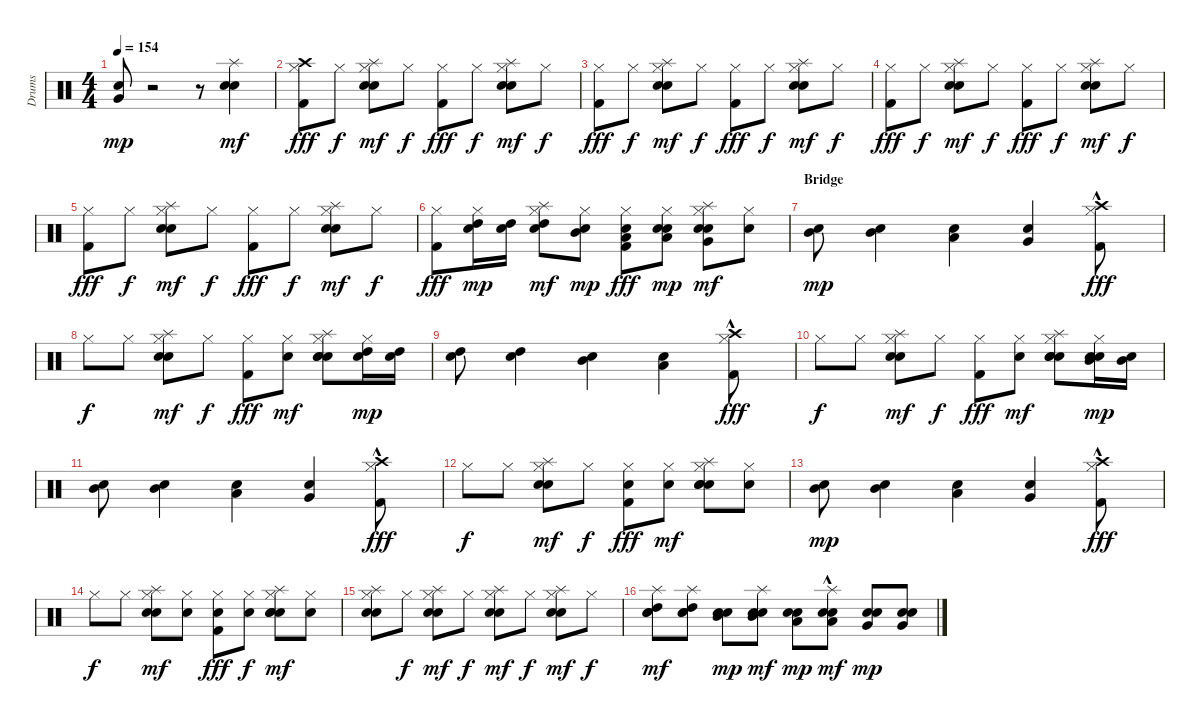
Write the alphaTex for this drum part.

\track ("Drums" "Drums") {instrument percussion}
\staff {score}
\articulation defaults
\ts (4 4)
\tempo 154
\clef neutral
\ks c
("Very Low Tom (hit)" "Snare (hit) 2").8{dy mp} r.2 r.8 ("Splash (hit)" "Electric Snare (hit)" "Snare (hit) 2").4{dy mf} |
("Crash high (hit)" "Hi-Hat (closed)" "Kick (hit) 2").8{dy fff} "Hi-Hat (closed)".8{dy f} ("Splash (hit)" "Hi-Hat (closed)" "Electric Snare (hit)" "Snare (hit) 2").8{dy mf} "Hi-Hat (closed)".8{dy f} ("Hi-Hat (closed)" "Kick (hit) 2").8{dy fff} "Hi-Hat (closed)".8{dy f} ("Splash (hit)" "Hi-Hat (closed)" "Electric Snare (hit)" "Snare (hit) 2").8{dy mf} "Hi-Hat (closed)".8{dy f} |
("Hi-Hat (closed)" "Kick (hit) 2").8{dy fff} "Hi-Hat (closed)".8{dy f} ("Splash (hit)" "Hi-Hat (closed)" "Electric Snare (hit)" "Snare (hit) 2").8{dy mf} "Hi-Hat (closed)".8{dy f} ("Hi-Hat (closed)" "Kick (hit) 2").8{dy fff} "Hi-Hat (closed)".8{dy f} ("Splash (hit)" "Hi-Hat (closed)" "Electric Snare (hit)" "Snare (hit) 2").8{dy mf} "Hi-Hat (closed)".8{dy f} |
("Hi-Hat (closed)" "Kick (hit) 2").8{dy fff} "Hi-Hat (closed)".8{dy f} ("Splash (hit)" "Hi-Hat (closed)" "Electric Snare (hit)" "Snare (hit) 2").8{dy mf} "Hi-Hat (closed)".8{dy f} ("Hi-Hat (closed)" "Kick (hit) 2").8{dy fff} "Hi-Hat (closed)".8{dy f} ("Splash (hit)" "Hi-Hat (closed)" "Electric Snare (hit)" "Snare (hit) 2").8{dy mf} "Hi-Hat (closed)".8{dy f} |
("Hi-Hat (closed)" "Kick (hit) 2").8{dy fff} "Hi-Hat (closed)".8{dy f} ("Splash (hit)" "Hi-Hat (closed)" "Electric Snare (hit)" "Snare (hit) 2").8{dy mf} "Hi-Hat (closed)".8{dy f} ("Hi-Hat (closed)" "Kick (hit) 2").8{dy fff} "Hi-Hat (closed)".8{dy f} ("Splash (hit)" "Hi-Hat (closed)" "Electric Snare (hit)" "Snare (hit) 2").8{dy mf} "Hi-Hat (closed)".8{dy f} |
("Hi-Hat (closed)" "Kick (hit) 2").8{dy fff} ("Hi-Hat (closed)" "High Tom (hit)" "Snare (hit) 2").16{dy mp} ("High Tom (hit)" "Snare (hit) 2").16 ("Splash (hit)" "Hi-Hat (closed)" "High Tom (hit)" "Snare (hit) 2").8{dy mf} ("Hi-Hat (closed)" "Mid Tom (hit)" "Snare (hit) 2").8{dy mp} ("Hi-Hat (closed)" "Low Tom (hit)" "Snare (hit) 2" "Kick (hit) 2").8{dy fff} ("Hi-Hat (closed)" "Hand Clap (hit)" "Low Tom (hit)" "Snare (hit) 2").8{dy mp} ("Splash (hit)" "Hi-Hat (closed)" "Hand Clap (hit)" "Very Low Tom (hit)" "Snare (hit) 2").8{dy mf} ("Hi-Hat (closed)" "Hand Clap (hit)").8 |
\section ("" "Bridge")
("Mid Tom (hit)" "Snare (hit) 2").8{dy mp} ("Mid Tom (hit)" "Snare (hit) 2").4 ("Low Tom (hit)" "Snare (hit) 2").4 ("Very Low Tom (hit)" "Snare (hit) 2").4 ("Crash high (hit)" "Hi-Hat (closed)" "Kick (hit) 2"{hac}).8{dy fff} |
"Hi-Hat (closed)".8{dy f} "Hi-Hat (closed)".8 ("Splash (hit)" "Hi-Hat (closed)" "Electric Snare (hit)" "Snare (hit) 2").8{dy mf} "Hi-Hat (closed)".8{dy f} ("Hi-Hat (closed)" "Kick (hit) 2").8{dy fff} ("Hi-Hat (closed)" "Hand Clap (hit)").8{dy mf} ("Splash (hit)" "Hi-Hat (closed)" "Hand Clap (hit)" "Electric Snare (hit)" "Snare (hit) 2").8 ("Hi-Hat (closed)" "High Tom (hit)" "Snare (hit) 2").16{dy mp} ("High Tom (hit)" "Snare (hit) 2").16 |
("High Tom (hit)" "Snare (hit) 2").8 ("High Tom (hit)" "Snare (hit) 2").4 ("Mid Tom (hit)" "Snare (hit) 2").4 ("Low Tom (hit)" "Snare (hit) 2").4 ("Crash high (hit)" "Hi-Hat (closed)" "Kick (hit) 2"{hac}).8{dy fff} |
"Hi-Hat (closed)".8{dy f} "Hi-Hat (closed)".8 ("Splash (hit)" "Hi-Hat (closed)" "Electric Snare (hit)" "Snare (hit) 2").8{dy mf} "Hi-Hat (closed)".8{dy f} ("Hi-Hat (closed)" "Kick (hit) 2").8{dy fff} ("Hi-Hat (closed)" "Hand Clap (hit)").8{dy mf} ("Splash (hit)" "Hi-Hat (closed)" "Hand Clap (hit)" "Electric Snare (hit)" "Snare (hit) 2").8 ("Hi-Hat (closed)" "Hand Clap (hit)" "Mid Tom (hit)" "Snare (hit) 2").16{dy mp} ("Mid Tom (hit)" "Snare (hit) 2").16 |
("Mid Tom (hit)" "Snare (hit) 2").8 ("Mid Tom (hit)" "Snare (hit) 2").4 ("Low Tom (hit)" "Snare (hit) 2").4 ("Very Low Tom (hit)" "Snare (hit) 2").4 ("Crash high (hit)" "Hi-Hat (closed)" "Kick (hit) 2"{hac}).8{dy fff} |
"Hi-Hat (closed)".8{dy f} "Hi-Hat (closed)".8 ("Splash (hit)" "Hi-Hat (closed)" "Electric Snare (hit)" "Snare (hit) 2").8{dy mf} "Hi-Hat (closed)".8{dy f} ("Hi-Hat (closed)" "Hand Clap (hit)" "Kick (hit) 2").8{dy fff} ("Hi-Hat (closed)" "Hand Clap (hit)").8{dy mf} ("Splash (hit)" "Hi-Hat (closed)" "Hand Clap (hit)" "Electric Snare (hit)" "Snare (hit) 2").8 ("Hi-Hat (closed)" "Hand Clap (hit)").8 |
("Mid Tom (hit)" "Snare (hit) 2").8{dy mp} ("Mid Tom (hit)" "Snare (hit) 2").4 ("Low Tom (hit)" "Snare (hit) 2").4 ("Very Low Tom (hit)" "Snare (hit) 2").4 ("Crash high (hit)" "Hi-Hat (closed)" "Kick (hit) 2"{hac}).8{dy fff} |
"Hi-Hat (closed)".8{dy f} "Hi-Hat (closed)".8 ("Splash (hit)" "Hi-Hat (closed)" "Electric Snare (hit)" "Snare (hit) 2").8{dy mf} ("Hi-Hat (closed)" "Hand Clap (hit)").8 ("Hi-Hat (closed)" "Hand Clap (hit)" "Kick (hit) 2").8{dy fff} ("Hand Clap (hit)" "Hi-Hat (closed)").8{dy f} ("Splash (hit)" "Hi-Hat (closed)" "Hand Clap (hit)" "Electric Snare (hit)" "Snare (hit) 2").8{dy mf} ("Hi-Hat (closed)" "Hand Clap (hit)").8 |
("Splash (hit)" "Hi-Hat (closed)" "Electric Snare (hit)" "Snare (hit) 2").8 "Hi-Hat (closed)".8{dy f} ("Splash (hit)" "Hi-Hat (closed)" "Electric Snare (hit)" "Snare (hit) 2").8{dy mf} "Hi-Hat (closed)".8{dy f} ("Splash (hit)" "Hi-Hat (closed)" "Electric Snare (hit)" "Snare (hit) 2").8{dy mf} "Hi-Hat (closed)".8{dy f} ("Splash (hit)" "Hi-Hat (closed)" "Electric Snare (hit)" "Snare (hit) 2").8{dy mf} "Hi-Hat (closed)".8{dy f} |
("Splash (hit)" "Hand Clap (hit)" "High Tom (hit)" "Snare (hit) 2").8{dy mf} ("Splash (hit)" "Hand Clap (hit)" "High Tom (hit)" "Snare (hit) 2").8 ("Hand Clap (hit)" "Mid Tom (hit)" "Snare (hit) 2").8{dy mp} ("Splash (hit)" "Hand Clap (hit)" "Mid Tom (hit)" "Snare (hit) 2").8{dy mf} ("Hand Clap (hit)" "Low Tom (hit)" "Snare (hit) 2").8{dy mp} ("Splash (hit)"{hac} "Hand Clap (hit)" "Low Tom (hit)" "Snare (hit) 2").8{dy mf} ("Hand Clap (hit)" "Very Low Tom (hit)" "Snare (hit) 2").8{dy mp} ("Hand Clap (hit)" "Very Low Tom (hit)" "Snare (hit) 2").8
